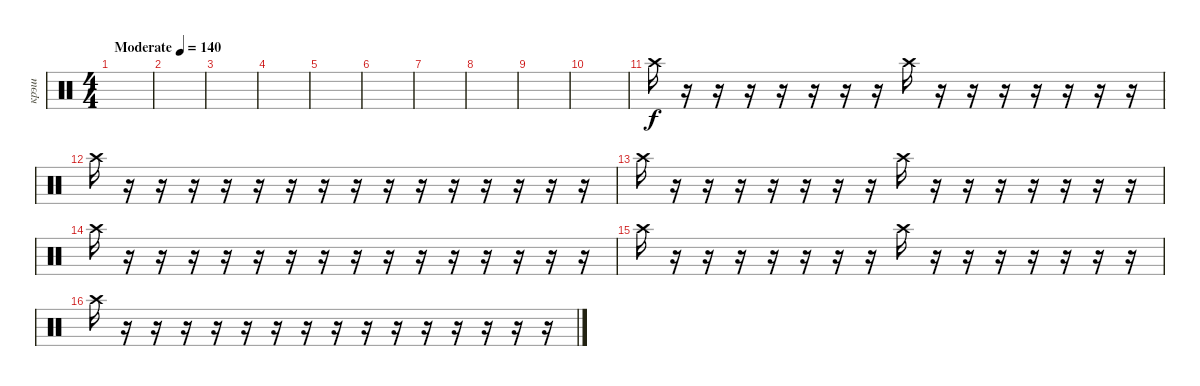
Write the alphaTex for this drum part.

\track ("крэш" "крэш") {mute instrument percussion}
\staff {score}
\articulation defaults
\ts (4 4)
\tempo (140 "Moderate")
\clef neutral
\ks c
|
|
|
|
|
|
|
|
|
|
"Crash high (hit)".16 r.16 r.16 r.16 r.16 r.16 r.16 r.16 "Crash high (hit)".16 r.16 r.16 r.16 r.16 r.16 r.16 r.16 |
"Crash high (hit)".16 r.16 r.16 r.16 r.16 r.16 r.16 r.16 r.16 r.16 r.16 r.16 r.16 r.16 r.16 r.16 |
"Crash high (hit)".16 r.16 r.16 r.16 r.16 r.16 r.16 r.16 "Crash high (hit)".16 r.16 r.16 r.16 r.16 r.16 r.16 r.16 |
"Crash high (hit)".16 r.16 r.16 r.16 r.16 r.16 r.16 r.16 r.16 r.16 r.16 r.16 r.16 r.16 r.16 r.16 |
"Crash high (hit)".16 r.16 r.16 r.16 r.16 r.16 r.16 r.16 "Crash high (hit)".16 r.16 r.16 r.16 r.16 r.16 r.16 r.16 |
"Crash high (hit)".16 r.16 r.16 r.16 r.16 r.16 r.16 r.16 r.16 r.16 r.16 r.16 r.16 r.16 r.16 r.16
